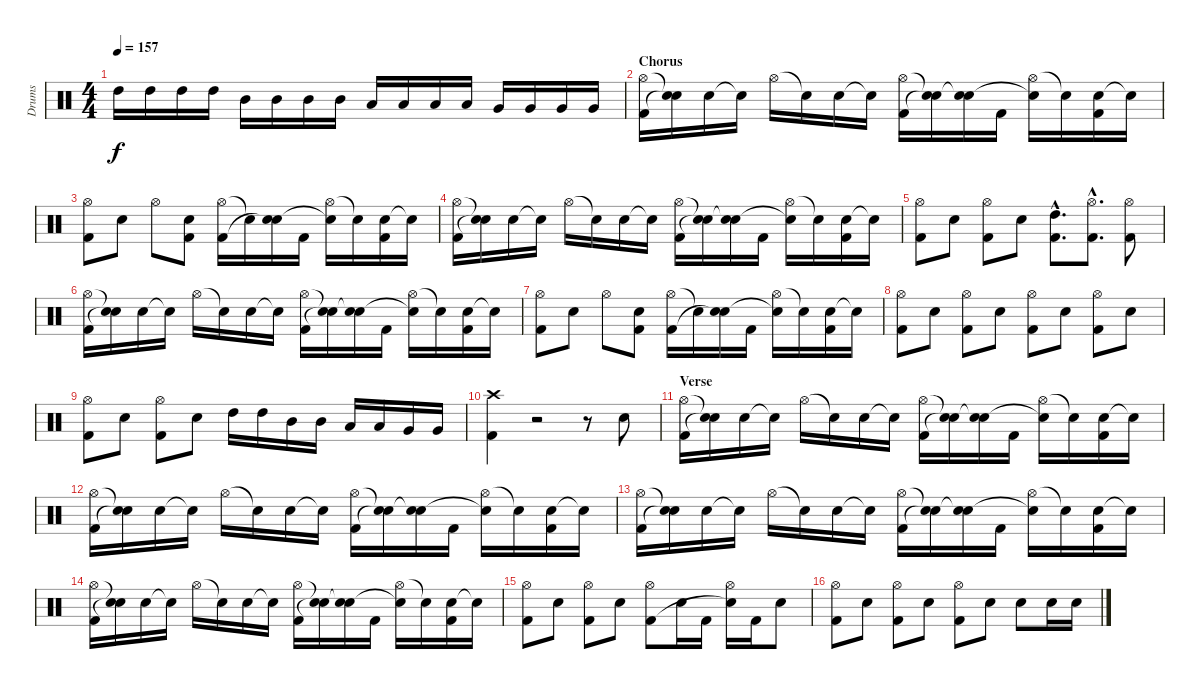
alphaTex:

\track ("Drums" "Drums") {instrument percussion}
\staff {score}
\articulation defaults
\ts (4 4)
\tempo 157
\clef neutral
\ks c "High Tom (hit)".16{dy f} "High Tom (hit)".16 "High Tom (hit)".16 "High Tom (hit)".16 "Mid Tom (hit)".16 "Mid Tom (hit)".16 "Mid Tom (hit)".16 "Mid Tom (hit)".16 "Low Tom (hit)".16 "Low Tom (hit)".16 "Low Tom (hit)".16 "Low Tom (hit)".16 "Very Low Tom (hit)".16 "Very Low Tom (hit)".16 "Very Low Tom (hit)".16 "Very Low Tom (hit)".16
|
\section ("" "Chorus")
("Hi-Hat (open)" "Kick (hit) 2").16 ("Snare (hit)"{t} "Snare (hit)"{t}).16 "Electric Snare (hit)".16 "Snare (hit)"{t}.16 "Hi-Hat (open)".16 "Snare (hit)"{t}.16 "Electric Snare (hit)".16 "Snare (hit)"{t}.16 ("Hi-Hat (open)" "Kick (hit) 2").16 ("Snare (hit)"{t} "Snare (hit)"{t}).16 ("Electric Snare (hit)" "Snare (hit)"{t}).16 "Kick (hit) 2".16 ("Hi-Hat (open)" "Snare (hit)"{t}).16 "Snare (hit)"{t}.16 ("Electric Snare (hit)" "Kick (hit) 2").16 "Snare (hit)"{t}.16 |
("Hi-Hat (open)" "Kick (hit) 2").8 "Electric Snare (hit)".8 "Hi-Hat (open)".8 ("Electric Snare (hit)" "Kick (hit) 2").8 ("Hi-Hat (open)" "Kick (hit) 2").16 "Snare (hit)"{t}.16 ("Electric Snare (hit)" "Snare (hit)"{t}).16 "Kick (hit) 2".16 ("Hi-Hat (open)" "Snare (hit)"{t}).16 "Snare (hit)"{t}.16 ("Electric Snare (hit)" "Kick (hit) 2").16 "Snare (hit)"{t}.16 |
("Hi-Hat (open)" "Kick (hit) 2").16 ("Snare (hit)"{t} "Snare (hit)"{t}).16 "Electric Snare (hit)".16 "Snare (hit)"{t}.16 "Hi-Hat (open)".16 "Snare (hit)"{t}.16 "Electric Snare (hit)".16 "Snare (hit)"{t}.16 ("Hi-Hat (open)" "Kick (hit) 2").16 ("Snare (hit)"{t} "Snare (hit)"{t}).16 ("Electric Snare (hit)" "Snare (hit)"{t}).16 "Kick (hit) 2".16 ("Hi-Hat (open)" "Snare (hit)"{t}).16 "Snare (hit)"{t}.16 ("Electric Snare (hit)" "Kick (hit) 2").16 "Snare (hit)"{t}.16 |
("Hi-Hat (open)" "Kick (hit) 2").8 "Electric Snare (hit)".8 ("Hi-Hat (open)" "Kick (hit) 2").8 "Electric Snare (hit)".8 ("High Tom (hit)"{hac} "Kick (hit) 2"{hac}).8{d} ("Hi-Hat (open)"{hac} "Kick (hit) 2"{hac}).8{d} ("Hi-Hat (open)" "Kick (hit) 2").8 |
("Hi-Hat (open)" "Kick (hit) 2").16 ("Snare (hit)"{t} "Snare (hit)"{t}).16 "Electric Snare (hit)".16 "Snare (hit)"{t}.16 "Hi-Hat (open)".16 "Snare (hit)"{t}.16 "Electric Snare (hit)".16 "Snare (hit)"{t}.16 ("Hi-Hat (open)" "Kick (hit) 2").16 ("Snare (hit)"{t} "Snare (hit)"{t}).16 ("Electric Snare (hit)" "Snare (hit)"{t}).16 "Kick (hit) 2".16 ("Hi-Hat (open)" "Snare (hit)"{t}).16 "Snare (hit)"{t}.16 ("Electric Snare (hit)" "Kick (hit) 2").16 "Snare (hit)"{t}.16 |
("Hi-Hat (open)" "Kick (hit) 2").8 "Electric Snare (hit)".8 "Hi-Hat (open)".8 ("Electric Snare (hit)" "Kick (hit) 2").8 ("Hi-Hat (open)" "Kick (hit) 2").16 "Snare (hit)"{t}.16 ("Electric Snare (hit)" "Snare (hit)"{t}).16 "Kick (hit) 2".16 ("Hi-Hat (open)" "Snare (hit)"{t}).16 "Snare (hit)"{t}.16 ("Electric Snare (hit)" "Kick (hit) 2").16 "Snare (hit)"{t}.16 |
("Hi-Hat (open)" "Kick (hit) 2").8 "Electric Snare (hit)".8 ("Hi-Hat (open)" "Kick (hit) 2").8 "Electric Snare (hit)".8 ("Hi-Hat (open)" "Kick (hit) 2").8 "Electric Snare (hit)".8 ("Hi-Hat (open)" "Kick (hit) 2").8 "Electric Snare (hit)".8 |
("Hi-Hat (open)" "Kick (hit) 2").8 "Electric Snare (hit)".8 ("Hi-Hat (open)" "Kick (hit) 2").8 "Electric Snare (hit)".8 "High Tom (hit)".16 "High Tom (hit)".16 "Mid Tom (hit)".16 "Mid Tom (hit)".16 "Low Tom (hit)".16 "Low Tom (hit)".16 "Very Low Tom (hit)".16 "Very Low Tom (hit)".16 |
("Crash high (hit)" "Kick (hit) 2").4 r.2 r.8 "Electric Snare (hit)".8 |
\section ("" "Verse")
("Hi-Hat (open)" "Kick (hit) 2").16 ("Snare (hit)"{t} "Snare (hit)"{t}).16 "Electric Snare (hit)".16 "Snare (hit)"{t}.16 "Hi-Hat (open)".16 "Snare (hit)"{t}.16 "Electric Snare (hit)".16 "Snare (hit)"{t}.16 ("Hi-Hat (open)" "Kick (hit) 2").16 ("Snare (hit)"{t} "Snare (hit)"{t}).16 ("Electric Snare (hit)" "Snare (hit)"{t}).16 "Kick (hit) 2".16 ("Hi-Hat (open)" "Snare (hit)"{t}).16 "Snare (hit)"{t}.16 ("Electric Snare (hit)" "Kick (hit) 2").16 "Snare (hit)"{t}.16 |
("Hi-Hat (open)" "Kick (hit) 2").16 ("Snare (hit)"{t} "Snare (hit)"{t}).16 "Electric Snare (hit)".16 "Snare (hit)"{t}.16 "Hi-Hat (open)".16 "Snare (hit)"{t}.16 "Electric Snare (hit)".16 "Snare (hit)"{t}.16 ("Hi-Hat (open)" "Kick (hit) 2").16 ("Snare (hit)"{t} "Snare (hit)"{t}).16 ("Electric Snare (hit)" "Snare (hit)"{t}).16 "Kick (hit) 2".16 ("Hi-Hat (open)" "Snare (hit)"{t}).16 "Snare (hit)"{t}.16 ("Electric Snare (hit)" "Kick (hit) 2").16 "Snare (hit)"{t}.16 |
("Hi-Hat (open)" "Kick (hit) 2").16 ("Snare (hit)"{t} "Snare (hit)"{t}).16 "Electric Snare (hit)".16 "Snare (hit)"{t}.16 "Hi-Hat (open)".16 "Snare (hit)"{t}.16 "Electric Snare (hit)".16 "Snare (hit)"{t}.16 ("Hi-Hat (open)" "Kick (hit) 2").16 ("Snare (hit)"{t} "Snare (hit)"{t}).16 ("Electric Snare (hit)" "Snare (hit)"{t}).16 "Kick (hit) 2".16 ("Hi-Hat (open)" "Snare (hit)"{t}).16 "Snare (hit)"{t}.16 ("Electric Snare (hit)" "Kick (hit) 2").16 "Snare (hit)"{t}.16 |
("Hi-Hat (open)" "Kick (hit) 2").16 ("Snare (hit)"{t} "Snare (hit)"{t}).16 "Electric Snare (hit)".16 "Snare (hit)"{t}.16 "Hi-Hat (open)".16 "Snare (hit)"{t}.16 "Electric Snare (hit)".16 "Snare (hit)"{t}.16 ("Hi-Hat (open)" "Kick (hit) 2").16 ("Snare (hit)"{t} "Snare (hit)"{t}).16 ("Electric Snare (hit)" "Snare (hit)"{t}).16 "Kick (hit) 2".16 ("Hi-Hat (open)" "Snare (hit)"{t}).16 "Snare (hit)"{t}.16 ("Electric Snare (hit)" "Kick (hit) 2").16 "Snare (hit)"{t}.16 |
("Hi-Hat (open)" "Kick (hit) 2").8 "Electric Snare (hit)".8 ("Hi-Hat (open)" "Kick (hit) 2").8 "Electric Snare (hit)".8 ("Hi-Hat (open)" "Kick (hit) 2").8 "Electric Snare (hit)".16 "Kick (hit) 2".16 ("Hi-Hat (open)" "Snare (hit)"{t}).16 "Kick (hit) 2".16 "Electric Snare (hit)".8 |
("Hi-Hat (open)" "Kick (hit) 2").8 "Electric Snare (hit)".8 ("Hi-Hat (open)" "Kick (hit) 2").8 "Electric Snare (hit)".8 ("Hi-Hat (open)" "Kick (hit) 2").8 "Electric Snare (hit)".8 "Electric Snare (hit)".8 "Electric Snare (hit)".16 "Electric Snare (hit)".16
